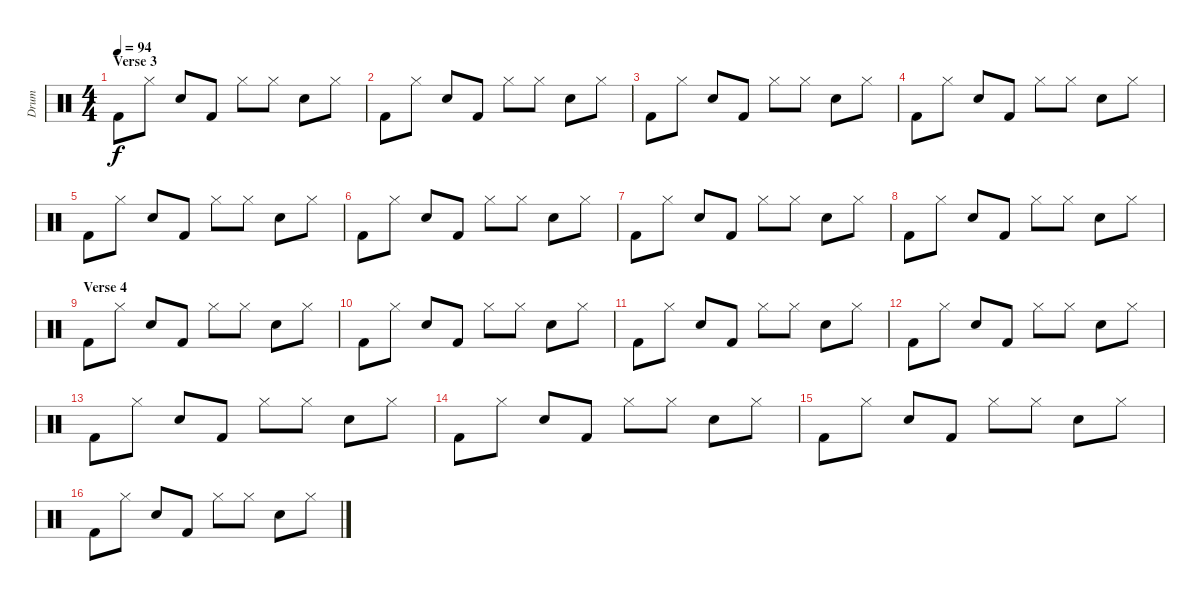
\track ("Drum" "Drum") {instrument percussion}
\staff {score}
\articulation defaults
\ts (4 4)
\section ("" "Verse 3")
\tempo 94
\clef neutral
\ks c "Kick (hit) 2".8{dy f} "Hi-Hat (closed)".8 "Electric Snare (hit)".8 "Kick (hit) 2".8 "Hi-Hat (closed)".8 "Hi-Hat (closed)".8 "Electric Snare (hit)".8 "Hi-Hat (closed)".8
|
"Kick (hit) 2".8 "Hi-Hat (closed)".8 "Electric Snare (hit)".8 "Kick (hit) 2".8 "Hi-Hat (closed)".8 "Hi-Hat (closed)".8 "Electric Snare (hit)".8 "Hi-Hat (closed)".8 |
"Kick (hit) 2".8 "Hi-Hat (closed)".8 "Electric Snare (hit)".8 "Kick (hit) 2".8 "Hi-Hat (closed)".8 "Hi-Hat (closed)".8 "Electric Snare (hit)".8 "Hi-Hat (closed)".8 |
"Kick (hit) 2".8 "Hi-Hat (closed)".8 "Electric Snare (hit)".8 "Kick (hit) 2".8 "Hi-Hat (closed)".8 "Hi-Hat (closed)".8 "Electric Snare (hit)".8 "Hi-Hat (closed)".8 |
"Kick (hit) 2".8 "Hi-Hat (closed)".8 "Electric Snare (hit)".8 "Kick (hit) 2".8 "Hi-Hat (closed)".8 "Hi-Hat (closed)".8 "Electric Snare (hit)".8 "Hi-Hat (closed)".8 |
"Kick (hit) 2".8 "Hi-Hat (closed)".8 "Electric Snare (hit)".8 "Kick (hit) 2".8 "Hi-Hat (closed)".8 "Hi-Hat (closed)".8 "Electric Snare (hit)".8 "Hi-Hat (closed)".8 |
"Kick (hit) 2".8 "Hi-Hat (closed)".8 "Electric Snare (hit)".8 "Kick (hit) 2".8 "Hi-Hat (closed)".8 "Hi-Hat (closed)".8 "Electric Snare (hit)".8 "Hi-Hat (closed)".8 |
"Kick (hit) 2".8 "Hi-Hat (closed)".8 "Electric Snare (hit)".8 "Kick (hit) 2".8 "Hi-Hat (closed)".8 "Hi-Hat (closed)".8 "Electric Snare (hit)".8 "Hi-Hat (closed)".8 |
\section ("" "Verse 4")
"Kick (hit) 2".8 "Hi-Hat (closed)".8 "Electric Snare (hit)".8 "Kick (hit) 2".8 "Hi-Hat (closed)".8 "Hi-Hat (closed)".8 "Electric Snare (hit)".8 "Hi-Hat (closed)".8 |
"Kick (hit) 2".8 "Hi-Hat (closed)".8 "Electric Snare (hit)".8 "Kick (hit) 2".8 "Hi-Hat (closed)".8 "Hi-Hat (closed)".8 "Electric Snare (hit)".8 "Hi-Hat (closed)".8 |
"Kick (hit) 2".8 "Hi-Hat (closed)".8 "Electric Snare (hit)".8 "Kick (hit) 2".8 "Hi-Hat (closed)".8 "Hi-Hat (closed)".8 "Electric Snare (hit)".8 "Hi-Hat (closed)".8 |
"Kick (hit) 2".8 "Hi-Hat (closed)".8 "Electric Snare (hit)".8 "Kick (hit) 2".8 "Hi-Hat (closed)".8 "Hi-Hat (closed)".8 "Electric Snare (hit)".8 "Hi-Hat (closed)".8 |
"Kick (hit) 2".8 "Hi-Hat (closed)".8 "Electric Snare (hit)".8 "Kick (hit) 2".8 "Hi-Hat (closed)".8 "Hi-Hat (closed)".8 "Electric Snare (hit)".8 "Hi-Hat (closed)".8 |
"Kick (hit) 2".8 "Hi-Hat (closed)".8 "Electric Snare (hit)".8 "Kick (hit) 2".8 "Hi-Hat (closed)".8 "Hi-Hat (closed)".8 "Electric Snare (hit)".8 "Hi-Hat (closed)".8 |
"Kick (hit) 2".8 "Hi-Hat (closed)".8 "Electric Snare (hit)".8 "Kick (hit) 2".8 "Hi-Hat (closed)".8 "Hi-Hat (closed)".8 "Electric Snare (hit)".8 "Hi-Hat (closed)".8 |
"Kick (hit) 2".8 "Hi-Hat (closed)".8 "Electric Snare (hit)".8 "Kick (hit) 2".8 "Hi-Hat (closed)".8 "Hi-Hat (closed)".8 "Electric Snare (hit)".8 "Hi-Hat (closed)".8
